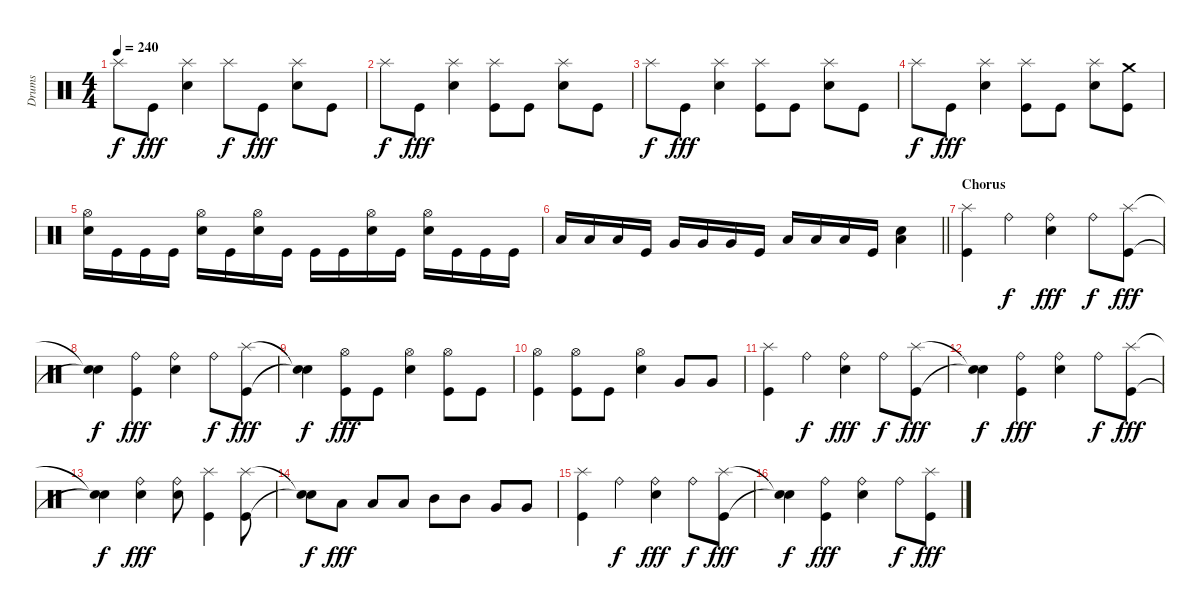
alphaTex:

\track ("Drums" "Drums") {instrument percussion}
\staff {score}
\articulation defaults
\ts (4 4)
\tempo 240
\clef neutral
\ks c "Splash (hit)".8{dy f} "Kick (hit)".8{dy fff}
("Electric Snare (hit)" "Splash (hit)").4 "Splash (hit)".8{dy f} "Kick (hit)".8{dy fff} ("Electric Snare (hit)" "Splash (hit)").8 "Kick (hit)".8 |
"Splash (hit)".8{dy f} "Kick (hit)".8{dy fff} ("Electric Snare (hit)" "Splash (hit)").4 ("Kick (hit)" "Splash (hit)").8 "Kick (hit)".8 ("Electric Snare (hit)" "Splash (hit)").8 "Kick (hit)".8 |
"Splash (hit)".8{dy f} "Kick (hit)".8{dy fff} ("Electric Snare (hit)" "Splash (hit)").4 ("Kick (hit)" "Splash (hit)").8 "Kick (hit)".8 ("Electric Snare (hit)" "Splash (hit)").8 "Kick (hit)".8 |
"Splash (hit)".8{dy f} "Kick (hit)".8{dy fff} ("Electric Snare (hit)" "Splash (hit)").4 ("Kick (hit)" "Splash (hit)").8 "Kick (hit)".8 ("Electric Snare (hit)" "Splash (hit)").8 ("Kick (hit)" "Crash medium (hit)").8 |
("Electric Snare (hit)" "Hi-Hat (open)").16 "Kick (hit)".16 "Kick (hit)".16 "Kick (hit)".16 ("Electric Snare (hit)" "Hi-Hat (open)").16 "Kick (hit)".16 ("Electric Snare (hit)" "Hi-Hat (open)").16 "Kick (hit)".16 "Kick (hit)".16 "Kick (hit)".16 ("Electric Snare (hit)" "Hi-Hat (open)").16 "Kick (hit)".16 ("Electric Snare (hit)" "Hi-Hat (open)").16 "Kick (hit)".16 "Kick (hit)".16 "Kick (hit)".16 |
\barLineRight lightlight "Low Tom (hit)".16 "Low Tom (hit)".16 "Low Tom (hit)".16 "Kick (hit)".16 "Very Low Tom (hit)".16 "Very Low Tom (hit)".16 "Very Low Tom (hit)".16 "Kick (hit)".16 "Low Floor Tom (hit)".16 "Low Floor Tom (hit)".16 "Low Floor Tom (hit)".16 "Kick (hit)".16
("Electric Snare (hit)" "Low Floor Tom (hit)").4 |
\section ("" "Chorus")
("Kick (hit)" "Splash (hit)").4 "Ride (bell)".4{dy f} ("Electric Snare (hit)" "Ride (bell)").4{dy fff} "Ride (bell)".8{dy f} ("Kick (hit)" "Splash (hit)").8{dy fff} |
("Snare (hit)"{t} "Snare (hit)"{t}).4{dy f} ("Kick (hit)" "Ride (bell)").4{dy fff} ("Electric Snare (hit)" "Ride (bell)").4 "Ride (bell)".8{dy f} ("Kick (hit)" "Splash (hit)").8{dy fff} |
("Snare (hit)"{t} "Snare (hit)"{t}).4{dy f} ("Kick (hit)" "Hi-Hat (open)").8{dy fff} "Kick (hit)".8 ("Electric Snare (hit)" "Hi-Hat (open)").4 ("Kick (hit)" "Hi-Hat (open)").8 "Kick (hit)".8 |
("Kick (hit)" "Hi-Hat (open)").4 ("Kick (hit)" "Hi-Hat (open)").8 "Kick (hit)".8 ("Electric Snare (hit)" "Hi-Hat (open)").4 "Very Low Tom (hit)".8 "Very Low Tom (hit)".8 |
("Kick (hit)" "Splash (hit)").4 "Ride (bell)".4{dy f} ("Electric Snare (hit)" "Ride (bell)").4{dy fff} "Ride (bell)".8{dy f} ("Kick (hit)" "Splash (hit)").8{dy fff} |
("Snare (hit)"{t} "Snare (hit)"{t}).4{dy f} ("Kick (hit)" "Ride (bell)").4{dy fff} ("Electric Snare (hit)" "Ride (bell)").4 "Ride (bell)".8{dy f} ("Kick (hit)" "Splash (hit)").8{dy fff} |
("Snare (hit)"{t} "Snare (hit)"{t}).4{dy f} ("Electric Snare (hit)" "Ride (bell)").4{dy fff} ("Electric Snare (hit)" "Ride (bell)").8 ("Kick (hit)" "Splash (hit)").4 ("Kick (hit)" "Splash (hit)").8 |
("Snare (hit)"{t} "Snare (hit)"{t}).8{dy f} "Low Tom (hit)".8{dy fff} "Low Tom (hit)".8 "Low Tom (hit)".8 "Mid Tom (hit)".8 "Mid Tom (hit)".8 "Very Low Tom (hit)".8 "Very Low Tom (hit)".8 |
("Kick (hit)" "Splash (hit)").4 "Ride (bell)".4{dy f} ("Electric Snare (hit)" "Ride (bell)").4{dy fff} "Ride (bell)".8{dy f} ("Kick (hit)" "Splash (hit)").8{dy fff} |
("Snare (hit)"{t} "Snare (hit)"{t}).4{dy f} ("Kick (hit)" "Ride (bell)").4{dy fff} ("Electric Snare (hit)" "Ride (bell)").4 "Ride (bell)".8{dy f} ("Kick (hit)" "Splash (hit)").8{dy fff}
